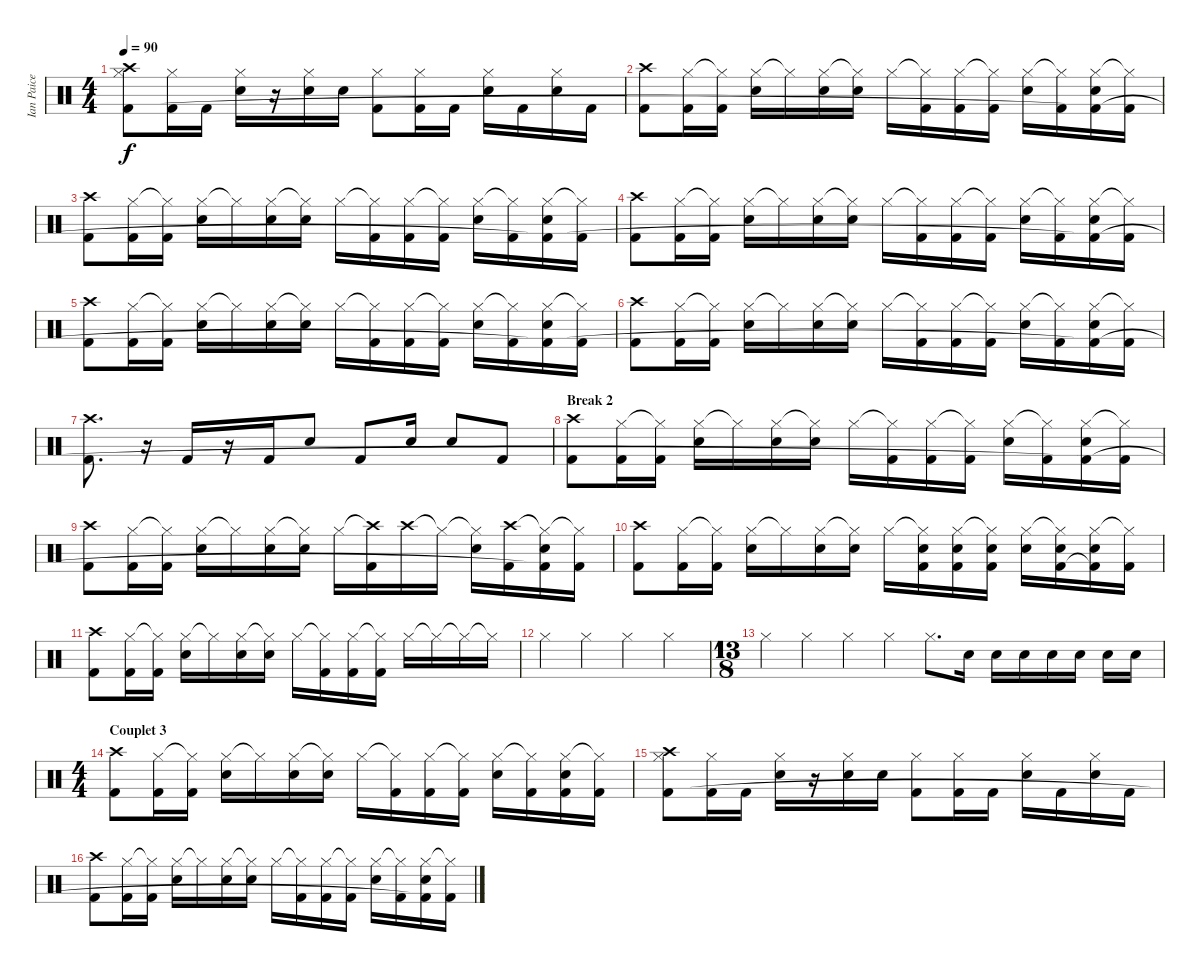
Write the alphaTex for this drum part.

\track ("Ian Paice" "Ian Paice") {instrument percussion}
\staff {score}
\articulation defaults
\ts (4 4)
\tempo 90
\clef neutral
\ks c
("Hi-Hat (closed)" "Crash high (hit)" "Kick (hit) 2").8{dy f} ("Hi-Hat (closed)" "Kick (hit) 2").16 "Kick (hit) 2".16 ("Hi-Hat (closed)" "Snare (hit) 2").16 r.16 ("Hi-Hat (closed)" "Snare (hit) 2").16 "Snare (hit) 2".16 ("Hi-Hat (closed)" "Kick (hit) 2").8 ("Hi-Hat (closed)" "Kick (hit) 2").16 "Kick (hit) 2".16 ("Hi-Hat (closed)" "Snare (hit) 2").16 "Kick (hit) 2".16 ("Hi-Hat (closed)" "Snare (hit) 2").16 "Kick (hit) 2".16 |
("Crash high (hit)" "Kick (hit) 2").8 ("Hi-Hat (closed)" "Kick (hit) 2").16 ("Hi-Hat (closed)"{t} "Kick (hit) 2").16 ("Hi-Hat (closed)" "Snare (hit) 2").16 "Hi-Hat (closed)"{t}.16 ("Hi-Hat (closed)" "Snare (hit) 2").16 ("Hi-Hat (closed)"{t} "Snare (hit) 2").16 "Hi-Hat (closed)".16 ("Hi-Hat (closed)"{t} "Kick (hit) 2").16 ("Hi-Hat (closed)" "Kick (hit) 2").16 ("Hi-Hat (closed)"{t} "Kick (hit) 2").16 ("Hi-Hat (closed)" "Snare (hit) 2").16 ("Hi-Hat (closed)"{t} "Kick (hit) 2").16 ("Hi-Hat (closed)" "Snare (hit) 2" "Kick (hit) 2"{t}).16 ("Hi-Hat (closed)"{t} "Kick (hit) 2").16 |
("Crash high (hit)" "Kick (hit) 2").8 ("Hi-Hat (closed)" "Kick (hit) 2").16 ("Hi-Hat (closed)"{t} "Kick (hit) 2").16 ("Hi-Hat (closed)" "Snare (hit) 2").16 "Hi-Hat (closed)"{t}.16 ("Hi-Hat (closed)" "Snare (hit) 2").16 ("Hi-Hat (closed)"{t} "Snare (hit) 2").16 "Hi-Hat (closed)".16 ("Hi-Hat (closed)"{t} "Kick (hit) 2").16 ("Hi-Hat (closed)" "Kick (hit) 2").16 ("Hi-Hat (closed)"{t} "Kick (hit) 2").16 ("Hi-Hat (closed)" "Snare (hit) 2").16 ("Hi-Hat (closed)"{t} "Kick (hit) 2").16 ("Hi-Hat (closed)" "Snare (hit) 2" "Kick (hit) 2"{t}).16 ("Hi-Hat (closed)"{t} "Kick (hit) 2").16 |
("Crash high (hit)" "Kick (hit) 2").8 ("Hi-Hat (closed)" "Kick (hit) 2").16 ("Hi-Hat (closed)"{t} "Kick (hit) 2").16 ("Hi-Hat (closed)" "Snare (hit) 2").16 "Hi-Hat (closed)"{t}.16 ("Hi-Hat (closed)" "Snare (hit) 2").16 ("Hi-Hat (closed)"{t} "Snare (hit) 2").16 "Hi-Hat (closed)".16 ("Hi-Hat (closed)"{t} "Kick (hit) 2").16 ("Hi-Hat (closed)" "Kick (hit) 2").16 ("Hi-Hat (closed)"{t} "Kick (hit) 2").16 ("Hi-Hat (closed)" "Snare (hit) 2").16 ("Hi-Hat (closed)"{t} "Kick (hit) 2").16 ("Hi-Hat (closed)" "Snare (hit) 2" "Kick (hit) 2"{t}).16 ("Hi-Hat (closed)"{t} "Kick (hit) 2").16 |
("Crash high (hit)" "Kick (hit) 2").8 ("Hi-Hat (closed)" "Kick (hit) 2").16 ("Hi-Hat (closed)"{t} "Kick (hit) 2").16 ("Hi-Hat (closed)" "Snare (hit) 2").16 "Hi-Hat (closed)"{t}.16 ("Hi-Hat (closed)" "Snare (hit) 2").16 ("Hi-Hat (closed)"{t} "Snare (hit) 2").16 "Hi-Hat (closed)".16 ("Hi-Hat (closed)"{t} "Kick (hit) 2").16 ("Hi-Hat (closed)" "Kick (hit) 2").16 ("Hi-Hat (closed)"{t} "Kick (hit) 2").16 ("Hi-Hat (closed)" "Snare (hit) 2").16 ("Hi-Hat (closed)"{t} "Kick (hit) 2").16 ("Hi-Hat (closed)" "Snare (hit) 2" "Kick (hit) 2"{t}).16 ("Hi-Hat (closed)"{t} "Kick (hit) 2").16 |
("Crash high (hit)" "Kick (hit) 2").8 ("Hi-Hat (closed)" "Kick (hit) 2").16 ("Hi-Hat (closed)"{t} "Kick (hit) 2").16 ("Hi-Hat (closed)" "Snare (hit) 2").16 "Hi-Hat (closed)"{t}.16 ("Hi-Hat (closed)" "Snare (hit) 2").16 ("Hi-Hat (closed)"{t} "Snare (hit) 2").16 "Hi-Hat (closed)".16 ("Hi-Hat (closed)"{t} "Kick (hit) 2").16 ("Hi-Hat (closed)" "Kick (hit) 2").16 ("Hi-Hat (closed)"{t} "Kick (hit) 2").16 ("Hi-Hat (closed)" "Snare (hit) 2").16 ("Hi-Hat (closed)"{t} "Kick (hit) 2").16 ("Hi-Hat (closed)" "Snare (hit) 2" "Kick (hit) 2"{t}).16 ("Hi-Hat (closed)"{t} "Kick (hit) 2").16 |
("Crash high (hit)" "Kick (hit) 2").8{d} r.16 "Kick (hit) 2".16 r.16 "Kick (hit) 2".16 "Snare (hit) 2".8 "Kick (hit) 2".8 "Snare (hit) 2".16 "Snare (hit) 2".8 "Kick (hit) 2".8 |
\section ("" "Break 2")
("Crash high (hit)" "Kick (hit) 2").8 ("Hi-Hat (closed)" "Kick (hit) 2").16 ("Hi-Hat (closed)"{t} "Kick (hit) 2").16 ("Hi-Hat (closed)" "Snare (hit) 2").16 "Hi-Hat (closed)"{t}.16 ("Hi-Hat (closed)" "Snare (hit) 2").16 ("Hi-Hat (closed)"{t} "Snare (hit) 2").16 "Hi-Hat (closed)".16 ("Hi-Hat (closed)"{t} "Kick (hit) 2").16 ("Hi-Hat (closed)" "Kick (hit) 2").16 ("Hi-Hat (closed)"{t} "Kick (hit) 2").16 ("Hi-Hat (closed)" "Snare (hit) 2").16 ("Hi-Hat (closed)"{t} "Kick (hit) 2").16 ("Hi-Hat (closed)" "Snare (hit) 2" "Kick (hit) 2"{t}).16 ("Hi-Hat (closed)"{t} "Kick (hit) 2").16 |
("Crash high (hit)" "Kick (hit) 2").8 ("Hi-Hat (closed)" "Kick (hit) 2").16 ("Hi-Hat (closed)"{t} "Kick (hit) 2").16 ("Hi-Hat (closed)" "Snare (hit) 2").16 "Hi-Hat (closed)"{t}.16 ("Hi-Hat (closed)" "Snare (hit) 2").16 ("Hi-Hat (closed)"{t} "Snare (hit) 2").16 "Hi-Hat (closed)".16 ("Crash high (hit)"{t} "Kick (hit) 2").16 "Crash high (hit)".16 "Hi-Hat (closed)"{t}.16 ("Hi-Hat (closed)"{t} "Snare (hit) 2").16 ("Crash high (hit)" "Kick (hit) 2").16 ("Hi-Hat (closed)"{t} "Snare (hit) 2" "Kick (hit) 2"{t}).16 ("Hi-Hat (closed)"{t} "Kick (hit) 2").16 |
("Crash high (hit)" "Kick (hit) 2").8 ("Hi-Hat (closed)" "Kick (hit) 2").16 ("Hi-Hat (closed)"{t} "Kick (hit) 2").16 ("Hi-Hat (closed)" "Snare (hit) 2").16 "Hi-Hat (closed)"{t}.16 ("Hi-Hat (closed)" "Snare (hit) 2").16 ("Hi-Hat (closed)"{t} "Snare (hit) 2").16 "Hi-Hat (closed)".16 ("Hi-Hat (closed)"{t} "Snare (hit) 2" "Kick (hit) 2").16 ("Hi-Hat (closed)" "Snare (hit) 2" "Kick (hit) 2").16 ("Hi-Hat (closed)"{t} "Snare (hit) 2" "Kick (hit) 2").16 ("Hi-Hat (closed)" "Snare (hit) 2").16 ("Hi-Hat (closed)"{t} "Snare (hit) 2" "Kick (hit) 2").16 ("Hi-Hat (closed)" "Snare (hit) 2" "Kick (hit) 2"{t}).16 ("Hi-Hat (closed)"{t} "Kick (hit) 2").16 |
("Crash high (hit)" "Kick (hit) 2").8 ("Hi-Hat (closed)" "Kick (hit) 2").16 ("Hi-Hat (closed)"{t} "Kick (hit) 2").16 ("Hi-Hat (closed)" "Snare (hit) 2").16 "Hi-Hat (closed)"{t}.16 ("Hi-Hat (closed)" "Snare (hit) 2").16 ("Hi-Hat (closed)"{t} "Snare (hit) 2").16 "Hi-Hat (closed)".16 ("Hi-Hat (closed)"{t} "Kick (hit) 2").16 ("Hi-Hat (closed)" "Kick (hit) 2").16 ("Hi-Hat (closed)"{t} "Kick (hit) 2").16 "Hi-Hat (closed)".16 "Hi-Hat (closed)"{t}.16 "Hi-Hat (closed)"{t}.16 "Hi-Hat (closed)"{t}.16 |
"Hi-Hat (closed)".4 "Hi-Hat (closed)".4 "Hi-Hat (closed)".4 "Hi-Hat (closed)".4 |
\ts (13 8)
"Hi-Hat (closed)".4 "Hi-Hat (closed)".4 "Hi-Hat (closed)".4 "Hi-Hat (closed)".4 "Hi-Hat (closed)".8{d} "Snare (hit) 2".16 "Snare (hit) 2".16 "Snare (hit) 2".16 "Snare (hit) 2".16 "Snare (hit) 2".16 "Snare (hit) 2".16 "Snare (hit) 2".16 |
\ts (4 4)
\section ("" "Couplet 3")
("Crash high (hit)" "Kick (hit) 2").8 ("Hi-Hat (closed)" "Kick (hit) 2").16 ("Hi-Hat (closed)"{t} "Kick (hit) 2").16 ("Hi-Hat (closed)" "Snare (hit) 2").16 "Hi-Hat (closed)"{t}.16 ("Hi-Hat (closed)" "Snare (hit) 2").16 ("Hi-Hat (closed)"{t} "Snare (hit) 2").16 "Hi-Hat (closed)".16 ("Hi-Hat (closed)"{t} "Kick (hit) 2").16 ("Hi-Hat (closed)" "Kick (hit) 2").16 ("Hi-Hat (closed)"{t} "Kick (hit) 2").16 ("Hi-Hat (closed)" "Snare (hit) 2").16 ("Hi-Hat (closed)"{t} "Kick (hit) 2").16 ("Hi-Hat (closed)" "Snare (hit) 2" "Kick (hit) 2").16 ("Hi-Hat (closed)"{t} "Kick (hit) 2").16 |
("Hi-Hat (closed)" "Crash high (hit)" "Kick (hit) 2").8 ("Hi-Hat (closed)" "Kick (hit) 2").16 "Kick (hit) 2".16 ("Hi-Hat (closed)" "Snare (hit) 2").16 r.16 ("Hi-Hat (closed)" "Snare (hit) 2").16 "Snare (hit) 2".16 ("Hi-Hat (closed)" "Kick (hit) 2").8 ("Hi-Hat (closed)" "Kick (hit) 2").16 "Kick (hit) 2".16 ("Hi-Hat (closed)" "Snare (hit) 2").16 "Kick (hit) 2".16 ("Hi-Hat (closed)" "Snare (hit) 2").16 "Kick (hit) 2".16 |
("Crash high (hit)" "Kick (hit) 2").8 ("Hi-Hat (closed)" "Kick (hit) 2").16 ("Hi-Hat (closed)"{t} "Kick (hit) 2").16 ("Hi-Hat (closed)" "Snare (hit) 2").16 "Hi-Hat (closed)"{t}.16 ("Hi-Hat (closed)" "Snare (hit) 2").16 ("Hi-Hat (closed)"{t} "Snare (hit) 2").16 "Hi-Hat (closed)".16 ("Hi-Hat (closed)"{t} "Kick (hit) 2").16 ("Hi-Hat (closed)" "Kick (hit) 2").16 ("Hi-Hat (closed)"{t} "Kick (hit) 2").16 ("Hi-Hat (closed)" "Snare (hit) 2").16 ("Hi-Hat (closed)"{t} "Kick (hit) 2").16 ("Hi-Hat (closed)" "Snare (hit) 2" "Kick (hit) 2"{t}).16 ("Hi-Hat (closed)"{t} "Kick (hit) 2").16
